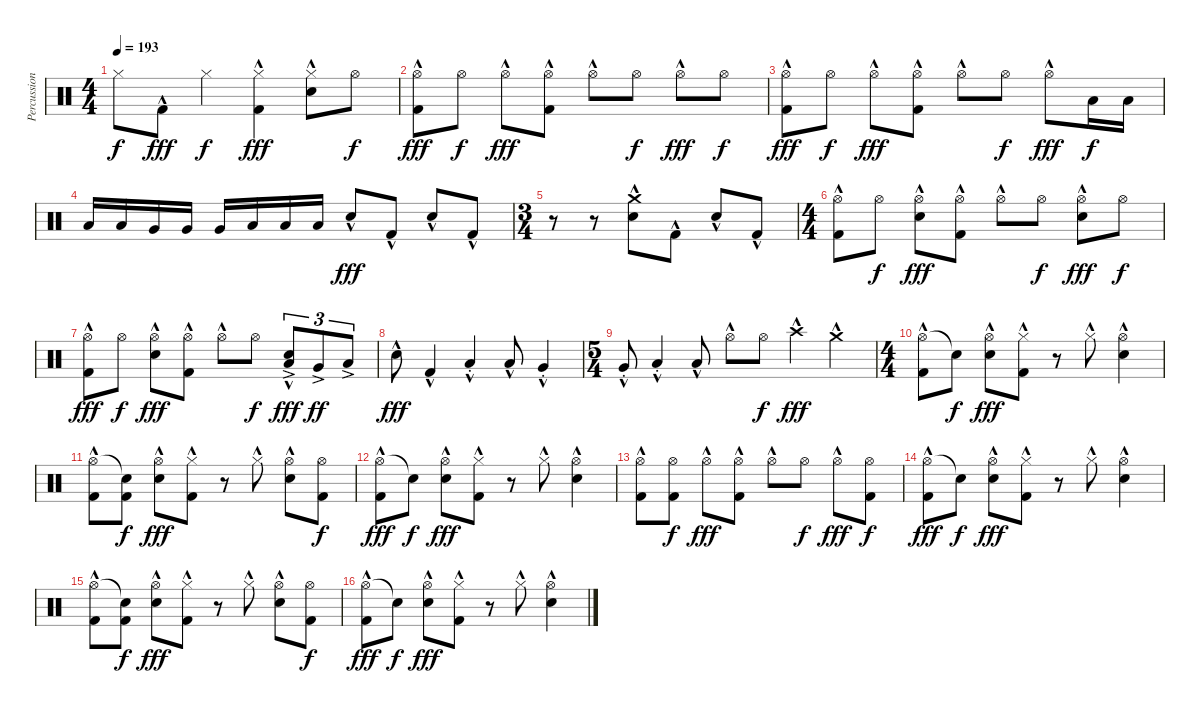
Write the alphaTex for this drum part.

\track ("Percussion" "Percussion") {instrument percussion}
\staff {score}
\articulation defaults
\ts (4 4)
\tempo 193
\clef neutral
\ks c "Hi-Hat (closed)".8{dy f} "Kick (hit) 2"{hac}.8{dy fff} "Hi-Hat (closed)".4{dy f}
("Hi-Hat (closed)" "Kick (hit) 2"{hac}).4{dy fff} ("Hi-Hat (closed)" "Electric Snare (hit)"{hac}).8 "Hi-Hat (open)".8{dy f} |
("Hi-Hat (open)"{hac} "Kick (hit) 2"{hac}).8{dy fff} "Hi-Hat (open)".8{dy f} "Hi-Hat (open)"{hac}.8{dy fff} ("Hi-Hat (open)" "Kick (hit) 2"{hac}).8 "Hi-Hat (open)"{hac}.8 "Hi-Hat (open)".8{dy f} "Hi-Hat (open)"{hac}.8{dy fff} "Hi-Hat (open)".8{dy f} |
("Hi-Hat (open)"{hac} "Kick (hit) 2"{hac}).8{dy fff} "Hi-Hat (open)".8{dy f} "Hi-Hat (open)"{hac}.8{dy fff} ("Hi-Hat (open)" "Kick (hit) 2"{hac}).8 "Hi-Hat (open)"{hac}.8 "Hi-Hat (open)".8{dy f} "Hi-Hat (open)"{hac}.8{dy fff} "Low Tom (hit)".16{dy f} "Low Tom (hit)".16 |
"Low Tom (hit)".16 "Low Tom (hit)".16 "Very Low Tom (hit)".16 "Very Low Tom (hit)".16 "Very Low Tom (hit)".16 "Low Floor Tom (hit)".16 "Low Floor Tom (hit)".16 "Low Floor Tom (hit)".16 "Electric Snare (hit)"{hac}.8{dy fff} "Kick (hit) 2"{hac}.8 "Electric Snare (hit)"{hac}.8 "Kick (hit) 2"{hac}.8 |
\ts (3 4)
r.8 r.8 ("Crash medium (hit)"{hac} "Electric Snare (hit)"{hac}).8 "Kick (hit) 2"{hac}.8 "Electric Snare (hit)"{hac}.8 "Kick (hit) 2"{hac}.8 |
\ts (4 4)
("Hi-Hat (open)"{hac} "Kick (hit) 2"{hac}).8 "Hi-Hat (open)".8{dy f} ("Hi-Hat (open)"{hac} "Electric Snare (hit)"{hac}).8{dy fff} ("Hi-Hat (open)" "Kick (hit) 2"{hac}).8 "Hi-Hat (open)"{hac}.8 "Hi-Hat (open)".8{dy f} ("Hi-Hat (open)"{hac} "Electric Snare (hit)"{hac}).8{dy fff} "Hi-Hat (open)".8{dy f} |
("Hi-Hat (open)"{hac} "Kick (hit) 2"{hac}).8{dy fff} "Hi-Hat (open)".8{dy f} ("Hi-Hat (open)"{hac} "Electric Snare (hit)"{hac}).8{dy fff} ("Hi-Hat (open)" "Kick (hit) 2"{hac}).8 "Hi-Hat (open)"{hac}.8 "Hi-Hat (open)".8{dy f} ("Low Tom (hit)"{ac} "Electric Snare (hit)"{hac}).8{tu (3 2) dy fff} "Very Low Tom (hit)"{ac}.8{tu (3 2) dy ff} "Low Floor Tom (hit)"{ac}.8{tu (3 2)} |
"Electric Snare (hit)"{hac}.8{dy fff} "Kick (hit) 2"{hac}.4 "Low Tom (hit)"{hac st}.4{balance 16} "Low Tom (hit)"{hac}.8 "Very Low Tom (hit)"{hac st}.4{balance 0} |
\ts (5 4)
"Very Low Tom (hit)"{hac st}.8 "Low Tom (hit)"{hac st}.4{balance 16} "Low Tom (hit)"{hac}.8 "Hi-Hat (open)"{hac}.8{balance 8} "Hi-Hat (open)".8{dy f} "Crash high (hit)"{hac}.4{dy fff} "Crash medium (hit)"{hac}.4 |
\ts (4 4)
("Hi-Hat (open)"{hac} "Kick (hit) 2"{hac}).8 "Snare (hit)"{t}.8{dy f} ("Hi-Hat (open)"{hac} "Electric Snare (hit)"{hac}).8{dy fff} ("Hi-Hat (closed)"{hac} "Kick (hit) 2"{hac}).8 r.8 "Hi-Hat (closed)"{hac}.8 ("Hi-Hat (open)"{hac} "Electric Snare (hit)"{hac}).4 |
("Hi-Hat (open)"{hac} "Kick (hit) 2"{hac}).8 ("Snare (hit)"{t} "Kick (hit) 2").8{dy f} ("Hi-Hat (open)"{hac} "Electric Snare (hit)"{hac}).8{dy fff} ("Hi-Hat (closed)"{hac} "Kick (hit) 2"{hac}).8 r.8 "Hi-Hat (closed)"{hac}.8 ("Hi-Hat (open)"{hac} "Electric Snare (hit)"{hac}).8 ("Hi-Hat (open)" "Kick (hit) 2").8{dy f} |
("Hi-Hat (open)"{hac} "Kick (hit) 2"{hac}).8{dy fff} "Snare (hit)"{t}.8{dy f} ("Hi-Hat (open)"{hac} "Electric Snare (hit)"{hac}).8{dy fff} ("Hi-Hat (closed)"{hac} "Kick (hit) 2"{hac}).8 r.8 "Hi-Hat (closed)"{hac}.8 ("Hi-Hat (open)"{hac} "Electric Snare (hit)"{hac}).4 |
("Hi-Hat (open)"{hac} "Kick (hit) 2"{hac}).8 ("Hi-Hat (open)" "Kick (hit) 2").8{dy f} "Hi-Hat (open)"{hac}.8{dy fff} ("Hi-Hat (open)" "Kick (hit) 2"{hac}).8 "Hi-Hat (open)"{hac}.8 "Hi-Hat (open)".8{dy f} "Hi-Hat (open)"{hac}.8{dy fff} ("Hi-Hat (open)" "Kick (hit) 2").8{dy f} |
("Hi-Hat (open)"{hac} "Kick (hit) 2"{hac}).8{dy fff} "Snare (hit)"{t}.8{dy f} ("Hi-Hat (open)"{hac} "Electric Snare (hit)"{hac}).8{dy fff} ("Hi-Hat (closed)"{hac} "Kick (hit) 2"{hac}).8 r.8 "Hi-Hat (closed)"{hac}.8 ("Hi-Hat (open)"{hac} "Electric Snare (hit)"{hac}).4 |
("Hi-Hat (open)"{hac} "Kick (hit) 2"{hac}).8 ("Snare (hit)"{t} "Kick (hit) 2").8{dy f} ("Hi-Hat (open)"{hac} "Electric Snare (hit)"{hac}).8{dy fff} ("Hi-Hat (closed)"{hac} "Kick (hit) 2"{hac}).8 r.8 "Hi-Hat (closed)"{hac}.8 ("Hi-Hat (open)"{hac} "Electric Snare (hit)"{hac}).8 ("Hi-Hat (open)" "Kick (hit) 2").8{dy f} |
("Hi-Hat (open)"{hac} "Kick (hit) 2"{hac}).8{dy fff} "Snare (hit)"{t}.8{dy f} ("Hi-Hat (open)"{hac} "Electric Snare (hit)"{hac}).8{dy fff} ("Hi-Hat (closed)"{hac} "Kick (hit) 2"{hac}).8 r.8 "Hi-Hat (closed)"{hac}.8 ("Hi-Hat (open)"{hac} "Electric Snare (hit)"{hac}).4
